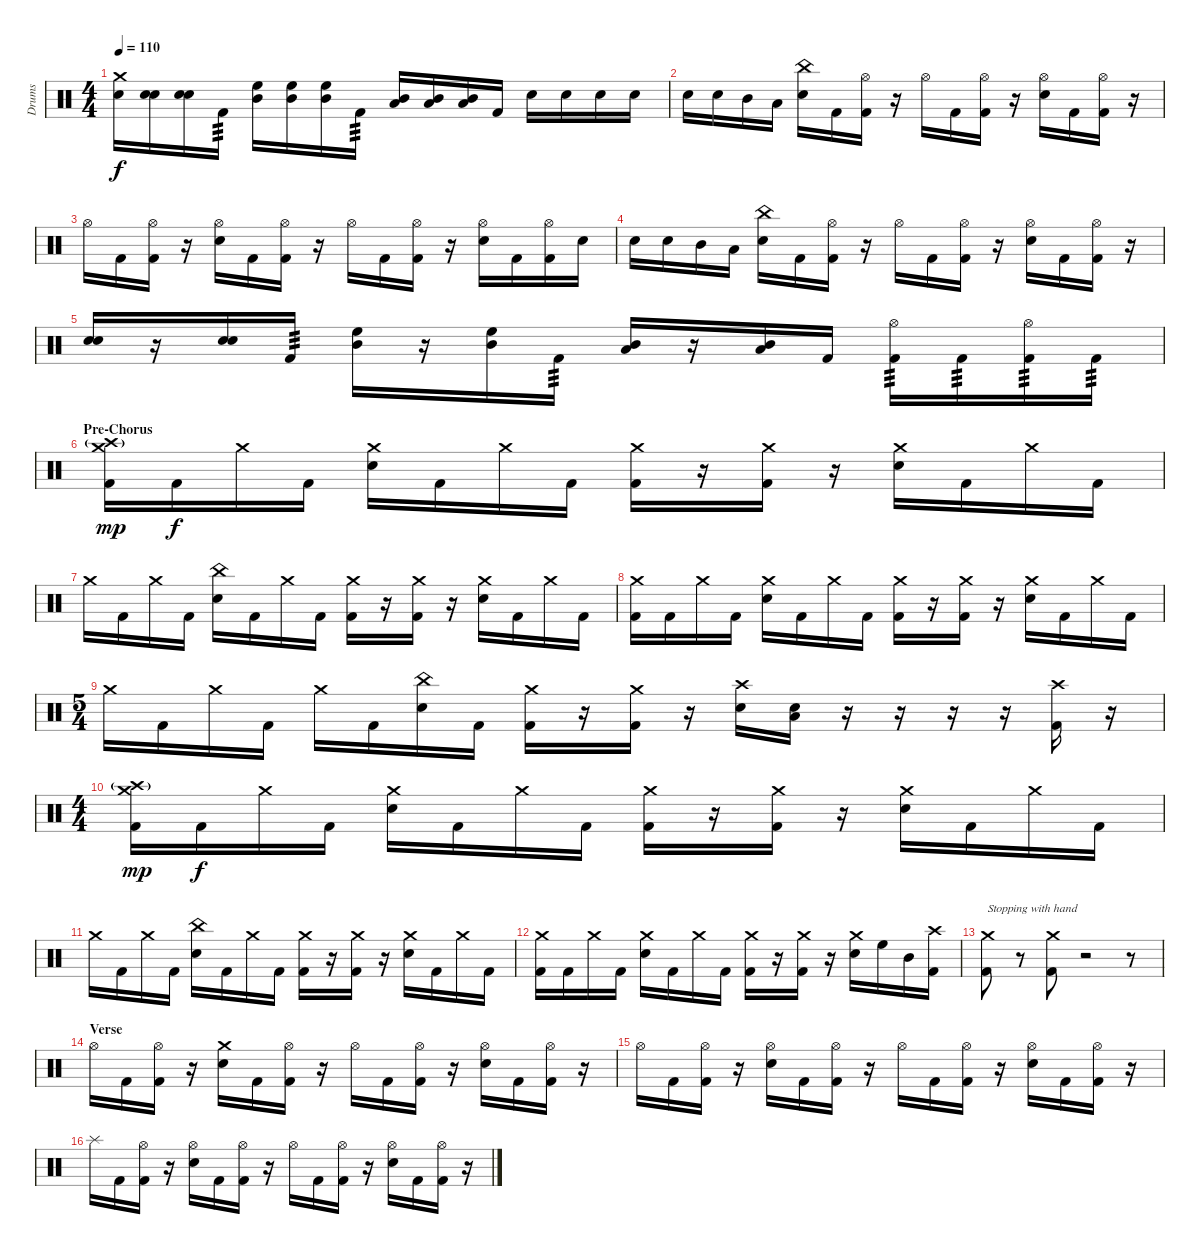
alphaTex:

\track ("Drums" "Drums") {instrument percussion}
\staff {score}
\articulation defaults
\ts (4 4)
\tempo 110
\clef neutral
\ks c
("Crash medium (hit)" "Snare (hit) 2").16{dy f} ("Snare (hit) 2" "Snare (hit) 2").16 ("Snare (hit) 2" "Snare (hit) 2").16 "Kick (hit) 2".16{tp 3} ("High Floor Tom (hit)" "Mid Tom (hit)").16 ("High Floor Tom (hit)" "Mid Tom (hit)").16 ("High Floor Tom (hit)" "Mid Tom (hit)").16 "Kick (hit) 2".16{tp 3} ("Mid Tom (hit)" "Low Tom (hit)").16 ("Mid Tom (hit)" "Low Tom (hit)").16 ("Mid Tom (hit)" "Low Tom (hit)").16 "Kick (hit) 2".16 "Snare (hit) 2".16 "Snare (hit) 2".16 "Snare (hit) 2".16 "Snare (hit) 2".16 |
"Snare (hit) 2".16 "Snare (hit) 2".16 "Mid Tom (hit)".16 "Low Tom (hit)".16 ("China (hit)" "Snare (hit) 2").16 "Kick (hit) 2".16 ("Hi-Hat (open)" "Kick (hit) 2").16 r.16 "Hi-Hat (open)".16 "Kick (hit) 2".16 ("Hi-Hat (open)" "Kick (hit) 2").16 r.16 ("Hi-Hat (open)" "Snare (hit) 2").16 "Kick (hit) 2".16 ("Hi-Hat (open)" "Kick (hit) 2").16 r.16 |
"Hi-Hat (open)".16 "Kick (hit) 2".16 ("Hi-Hat (open)" "Kick (hit) 2").16 r.16 ("Hi-Hat (open)" "Snare (hit) 2").16 "Kick (hit) 2".16 ("Hi-Hat (open)" "Kick (hit) 2").16 r.16 "Hi-Hat (open)".16 "Kick (hit) 2".16 ("Hi-Hat (open)" "Kick (hit) 2").16 r.16 ("Hi-Hat (open)" "Snare (hit) 2").16 "Kick (hit) 2".16 ("Hi-Hat (open)" "Kick (hit) 2").16 "Snare (hit) 2".16 |
"Snare (hit) 2".16 "Snare (hit) 2".16 "Mid Tom (hit)".16 "Low Tom (hit)".16 ("China (hit)" "Snare (hit) 2").16 "Kick (hit) 2".16 ("Hi-Hat (open)" "Kick (hit) 2").16 r.16 "Hi-Hat (open)".16 "Kick (hit) 2".16 ("Hi-Hat (open)" "Kick (hit) 2").16 r.16 ("Hi-Hat (open)" "Snare (hit) 2").16 "Kick (hit) 2".16 ("Hi-Hat (open)" "Kick (hit) 2").16 r.16 |
("Snare (hit) 2" "Snare (hit) 2").16 r.16 ("Snare (hit) 2" "Snare (hit) 2").16 "Kick (hit) 2".16{tp 3} ("High Floor Tom (hit)" "Mid Tom (hit)").16 r.16 ("High Floor Tom (hit)" "Mid Tom (hit)").16 "Kick (hit) 2".16{tp 3} ("Mid Tom (hit)" "Low Tom (hit)").16 r.16 ("Mid Tom (hit)" "Low Tom (hit)").16 "Kick (hit) 2".16 ("Hi-Hat (open)" "Kick (hit) 2").16{tp 3} "Kick (hit) 2".16{tp 3} ("Hi-Hat (open)" "Kick (hit) 2").16{tp 3} "Kick (hit) 2".16{tp 3} |
\section ("" "Pre-Chorus")
("Crash medium (hit)" "Crash high (hit)"{g} "Kick (hit) 2").16{dy mp} "Kick (hit) 2".16{dy f} "Crash medium (hit)".16 "Kick (hit) 2".16 ("Crash medium (hit)" "Snare (hit) 2").16 "Kick (hit) 2".16 "Crash medium (hit)".16 "Kick (hit) 2".16 ("Crash medium (hit)" "Kick (hit) 2").16 r.16 ("Crash medium (hit)" "Kick (hit) 2").16 r.16 ("Crash medium (hit)" "Snare (hit) 2").16 "Kick (hit) 2".16 "Crash medium (hit)".16 "Kick (hit) 2".16 |
"Crash medium (hit)".16 "Kick (hit) 2".16 "Crash medium (hit)".16 "Kick (hit) 2".16 ("China (hit)" "Snare (hit) 2").16 "Kick (hit) 2".16 "Crash medium (hit)".16 "Kick (hit) 2".16 ("Crash medium (hit)" "Kick (hit) 2").16 r.16 ("Crash medium (hit)" "Kick (hit) 2").16 r.16 ("Crash medium (hit)" "Snare (hit) 2").16 "Kick (hit) 2".16 "Crash medium (hit)".16 "Kick (hit) 2".16 |
("Crash medium (hit)" "Kick (hit) 2").16 "Kick (hit) 2".16 "Crash medium (hit)".16 "Kick (hit) 2".16 ("Crash medium (hit)" "Snare (hit) 2").16 "Kick (hit) 2".16 "Crash medium (hit)".16 "Kick (hit) 2".16 ("Crash medium (hit)" "Kick (hit) 2").16 r.16 ("Crash medium (hit)" "Kick (hit) 2").16 r.16 ("Crash medium (hit)" "Snare (hit) 2").16 "Kick (hit) 2".16 "Crash medium (hit)".16 "Kick (hit) 2".16 |
\ts (5 4)
"Crash medium (hit)".16 "Kick (hit) 2".16 "Crash medium (hit)".16 "Kick (hit) 2".16 "Crash medium (hit)".16 "Kick (hit) 2".16 ("China (hit)" "Snare (hit) 2").16 "Kick (hit) 2".16 ("Crash medium (hit)" "Kick (hit) 2").16 r.16 ("Crash medium (hit)" "Kick (hit) 2").16 r.16 ("Crash high (hit)" "Snare (hit) 2").16 ("Snare (hit) 2" "Low Tom (hit)").16 r.16 r.16 r.16 r.16 ("Crash high (hit)" "Kick (hit) 2").16 r.16 |
\ts (4 4)
("Crash medium (hit)" "Crash high (hit)"{g} "Kick (hit) 2").16{dy mp} "Kick (hit) 2".16{dy f} "Crash medium (hit)".16 "Kick (hit) 2".16 ("Crash medium (hit)" "Snare (hit) 2").16 "Kick (hit) 2".16 "Crash medium (hit)".16 "Kick (hit) 2".16 ("Crash medium (hit)" "Kick (hit) 2").16 r.16 ("Crash medium (hit)" "Kick (hit) 2").16 r.16 ("Crash medium (hit)" "Snare (hit) 2").16 "Kick (hit) 2".16 "Crash medium (hit)".16 "Kick (hit) 2".16 |
"Crash medium (hit)".16 "Kick (hit) 2".16 "Crash medium (hit)".16 "Kick (hit) 2".16 ("China (hit)" "Snare (hit) 2").16 "Kick (hit) 2".16 "Crash medium (hit)".16 "Kick (hit) 2".16 ("Crash medium (hit)" "Kick (hit) 2").16 r.16 ("Crash medium (hit)" "Kick (hit) 2").16 r.16 ("Crash medium (hit)" "Snare (hit) 2").16 "Kick (hit) 2".16 "Crash medium (hit)".16 "Kick (hit) 2".16 |
("Crash medium (hit)" "Kick (hit) 2").16 "Kick (hit) 2".16 "Crash medium (hit)".16 "Kick (hit) 2".16 ("Crash medium (hit)" "Snare (hit) 2").16 "Kick (hit) 2".16 "Crash medium (hit)".16 "Kick (hit) 2".16 ("Crash medium (hit)" "Kick (hit) 2").16 r.16 ("Crash medium (hit)" "Kick (hit) 2").16 r.16 ("Crash medium (hit)" "Snare (hit) 2").16 "High Floor Tom (hit)".16 "Mid Tom (hit)".16 ("Crash high (hit)" "Kick (hit) 2").16 |
("Crash medium (hit)" "Kick (hit) 2").8{txt "Stopping with hand"} r.8{volume 0} ("Crash medium (hit)" "Kick (hit) 2").8{volume 13} r.2{volume 0} r.8 |
\section ("" "Verse")
"Hi-Hat (open)".16{volume 13} "Kick (hit) 2".16 ("Hi-Hat (open)" "Kick (hit) 2").16 r.16 ("Crash medium (hit)" "Snare (hit) 2").16 "Kick (hit) 2".16 ("Hi-Hat (open)" "Kick (hit) 2").16 r.16 "Hi-Hat (open)".16 "Kick (hit) 2".16 ("Hi-Hat (open)" "Kick (hit) 2").16 r.16 ("Hi-Hat (open)" "Snare (hit) 2").16 "Kick (hit) 2".16 ("Hi-Hat (open)" "Kick (hit) 2").16 r.16 |
"Hi-Hat (open)".16 "Kick (hit) 2".16 ("Hi-Hat (open)" "Kick (hit) 2").16 r.16 ("Hi-Hat (open)" "Snare (hit) 2").16 "Kick (hit) 2".16 ("Hi-Hat (open)" "Kick (hit) 2").16 r.16 "Hi-Hat (open)".16 "Kick (hit) 2".16 ("Hi-Hat (open)" "Kick (hit) 2").16 r.16 ("Hi-Hat (open)" "Snare (hit) 2").16 "Kick (hit) 2".16 ("Hi-Hat (open)" "Kick (hit) 2").16 r.16 |
"Splash (hit)".16 "Kick (hit) 2".16 ("Hi-Hat (open)" "Kick (hit) 2").16 r.16 ("Hi-Hat (open)" "Snare (hit) 2").16 "Kick (hit) 2".16 ("Hi-Hat (open)" "Kick (hit) 2").16 r.16 "Hi-Hat (open)".16 "Kick (hit) 2".16 ("Hi-Hat (open)" "Kick (hit) 2").16 r.16 ("Hi-Hat (open)" "Snare (hit) 2").16 "Kick (hit) 2".16 ("Hi-Hat (open)" "Kick (hit) 2").16 r.16
